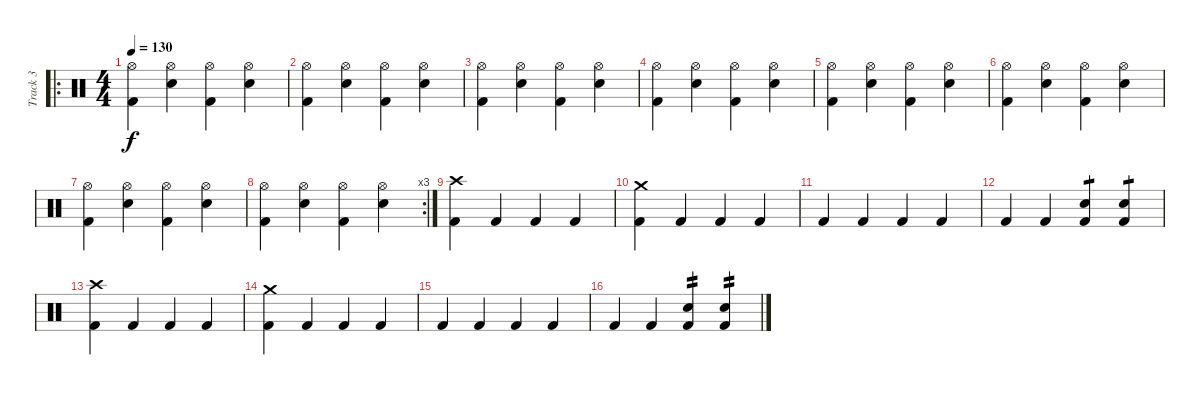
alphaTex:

\track ("Track 3" "Track 3") {instrument percussion}
\staff {score}
\articulation defaults
\ro
\ts (4 4)
\tempo 130
\clef neutral
\ks c
("Hi-Hat (open)" "Kick (hit) 2").4{dy f} ("Hi-Hat (open)" "Snare (hit) 2").4 ("Hi-Hat (open)" "Kick (hit) 2").4 ("Hi-Hat (open)" "Snare (hit) 2").4 |
("Hi-Hat (open)" "Kick (hit) 2").4 ("Hi-Hat (open)" "Snare (hit) 2").4 ("Hi-Hat (open)" "Kick (hit) 2").4 ("Hi-Hat (open)" "Snare (hit) 2").4 |
("Hi-Hat (open)" "Kick (hit) 2").4 ("Hi-Hat (open)" "Snare (hit) 2").4 ("Hi-Hat (open)" "Kick (hit) 2").4 ("Hi-Hat (open)" "Snare (hit) 2").4 |
("Hi-Hat (open)" "Kick (hit) 2").4 ("Hi-Hat (open)" "Snare (hit) 2").4 ("Hi-Hat (open)" "Kick (hit) 2").4 ("Hi-Hat (open)" "Snare (hit) 2").4 |
("Hi-Hat (open)" "Kick (hit) 2").4 ("Hi-Hat (open)" "Snare (hit) 2").4 ("Hi-Hat (open)" "Kick (hit) 2").4 ("Hi-Hat (open)" "Snare (hit) 2").4 |
("Hi-Hat (open)" "Kick (hit) 2").4 ("Hi-Hat (open)" "Snare (hit) 2").4 ("Hi-Hat (open)" "Kick (hit) 2").4 ("Hi-Hat (open)" "Snare (hit) 2").4 |
("Hi-Hat (open)" "Kick (hit) 2").4 ("Hi-Hat (open)" "Snare (hit) 2").4 ("Hi-Hat (open)" "Kick (hit) 2").4 ("Hi-Hat (open)" "Snare (hit) 2").4 |
\rc 3
("Hi-Hat (open)" "Kick (hit) 2").4 ("Hi-Hat (open)" "Snare (hit) 2").4 ("Hi-Hat (open)" "Kick (hit) 2").4 ("Hi-Hat (open)" "Snare (hit) 2").4 |
("Crash high (hit)" "Kick (hit) 2").4 "Kick (hit) 2".4 "Kick (hit) 2".4 "Kick (hit) 2".4 |
("Crash medium (hit)" "Kick (hit) 2").4 "Kick (hit) 2".4 "Kick (hit) 2".4 "Kick (hit) 2".4 |
"Kick (hit) 2".4 "Kick (hit) 2".4 "Kick (hit) 2".4 "Kick (hit) 2".4 |
"Kick (hit) 2".4 "Kick (hit) 2".4 ("Snare (hit) 2" "Kick (hit) 2").4{tp 1} ("Snare (hit) 2" "Kick (hit) 2").4{tp 1} |
("Crash high (hit)" "Kick (hit) 2").4 "Kick (hit) 2".4 "Kick (hit) 2".4 "Kick (hit) 2".4 |
("Crash medium (hit)" "Kick (hit) 2").4 "Kick (hit) 2".4 "Kick (hit) 2".4 "Kick (hit) 2".4 |
"Kick (hit) 2".4 "Kick (hit) 2".4 "Kick (hit) 2".4 "Kick (hit) 2".4 |
"Kick (hit) 2".4 "Kick (hit) 2".4 ("Snare (hit) 2" "Kick (hit) 2").4{tp 2} ("Snare (hit) 2" "Kick (hit) 2").4{tp 2}
